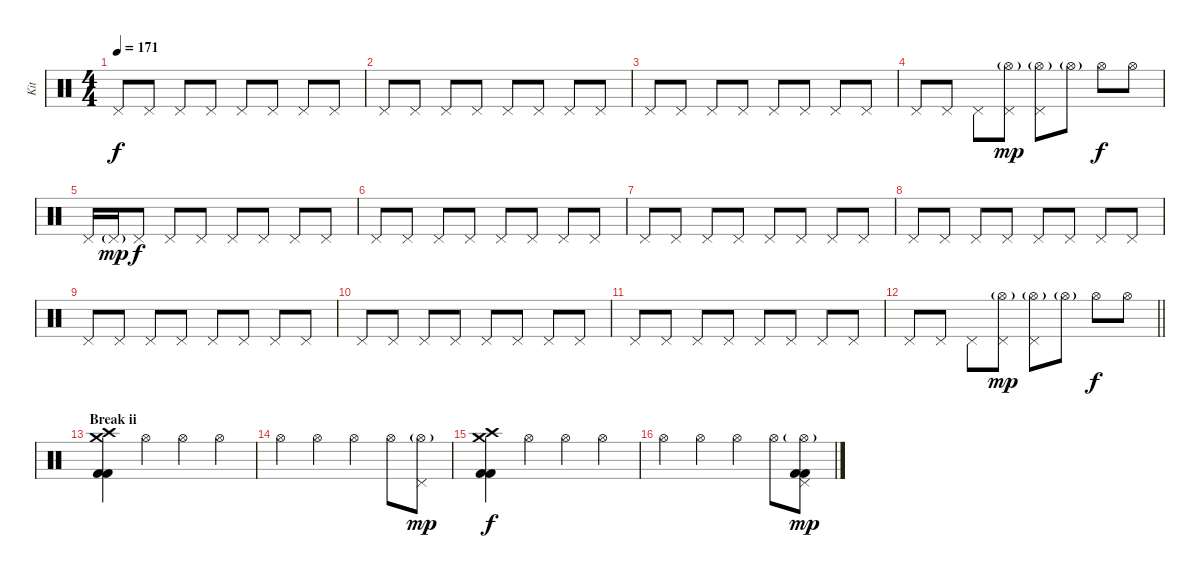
\track ("Kit" "Kit") {instrument percussion}
\staff {score}
\articulation defaults
\ts (4 4)
\tempo 171
\clef neutral
\ks c "Pedal Hi-Hat (hit)".8{dy f} "Pedal Hi-Hat (hit)".8 "Pedal Hi-Hat (hit)".8 "Pedal Hi-Hat (hit)".8 "Pedal Hi-Hat (hit)".8 "Pedal Hi-Hat (hit)".8 "Pedal Hi-Hat (hit)".8 "Pedal Hi-Hat (hit)".8
|
"Pedal Hi-Hat (hit)".8 "Pedal Hi-Hat (hit)".8 "Pedal Hi-Hat (hit)".8 "Pedal Hi-Hat (hit)".8 "Pedal Hi-Hat (hit)".8 "Pedal Hi-Hat (hit)".8 "Pedal Hi-Hat (hit)".8 "Pedal Hi-Hat (hit)".8 |
"Pedal Hi-Hat (hit)".8 "Pedal Hi-Hat (hit)".8 "Pedal Hi-Hat (hit)".8 "Pedal Hi-Hat (hit)".8 "Pedal Hi-Hat (hit)".8 "Pedal Hi-Hat (hit)".8 "Pedal Hi-Hat (hit)".8 "Pedal Hi-Hat (hit)".8 |
"Pedal Hi-Hat (hit)".8 "Pedal Hi-Hat (hit)".8 "Pedal Hi-Hat (hit)".8 ("Pedal Hi-Hat (hit)" "Hi-Hat (open)"{g}).8{dy mp} ("Pedal Hi-Hat (hit)" "Hi-Hat (open)"{g}).8 "Hi-Hat (open)"{g}.8 "Hi-Hat (open)".8{dy f} "Hi-Hat (open)".8 |
"Pedal Hi-Hat (hit)".16 "Pedal Hi-Hat (hit)"{g}.16{dy mp} "Pedal Hi-Hat (hit)".8{dy f} "Pedal Hi-Hat (hit)".8 "Pedal Hi-Hat (hit)".8 "Pedal Hi-Hat (hit)".8 "Pedal Hi-Hat (hit)".8 "Pedal Hi-Hat (hit)".8 "Pedal Hi-Hat (hit)".8 |
"Pedal Hi-Hat (hit)".8 "Pedal Hi-Hat (hit)".8 "Pedal Hi-Hat (hit)".8 "Pedal Hi-Hat (hit)".8 "Pedal Hi-Hat (hit)".8 "Pedal Hi-Hat (hit)".8 "Pedal Hi-Hat (hit)".8 "Pedal Hi-Hat (hit)".8 |
"Pedal Hi-Hat (hit)".8 "Pedal Hi-Hat (hit)".8 "Pedal Hi-Hat (hit)".8 "Pedal Hi-Hat (hit)".8 "Pedal Hi-Hat (hit)".8 "Pedal Hi-Hat (hit)".8 "Pedal Hi-Hat (hit)".8 "Pedal Hi-Hat (hit)".8 |
"Pedal Hi-Hat (hit)".8 "Pedal Hi-Hat (hit)".8 "Pedal Hi-Hat (hit)".8 "Pedal Hi-Hat (hit)".8 "Pedal Hi-Hat (hit)".8 "Pedal Hi-Hat (hit)".8 "Pedal Hi-Hat (hit)".8 "Pedal Hi-Hat (hit)".8 |
"Pedal Hi-Hat (hit)".8 "Pedal Hi-Hat (hit)".8 "Pedal Hi-Hat (hit)".8 "Pedal Hi-Hat (hit)".8 "Pedal Hi-Hat (hit)".8 "Pedal Hi-Hat (hit)".8 "Pedal Hi-Hat (hit)".8 "Pedal Hi-Hat (hit)".8 |
"Pedal Hi-Hat (hit)".8 "Pedal Hi-Hat (hit)".8 "Pedal Hi-Hat (hit)".8 "Pedal Hi-Hat (hit)".8 "Pedal Hi-Hat (hit)".8 "Pedal Hi-Hat (hit)".8 "Pedal Hi-Hat (hit)".8 "Pedal Hi-Hat (hit)".8 |
"Pedal Hi-Hat (hit)".8 "Pedal Hi-Hat (hit)".8 "Pedal Hi-Hat (hit)".8 "Pedal Hi-Hat (hit)".8 "Pedal Hi-Hat (hit)".8 "Pedal Hi-Hat (hit)".8 "Pedal Hi-Hat (hit)".8 "Pedal Hi-Hat (hit)".8 |
\barLineRight lightlight "Pedal Hi-Hat (hit)".8 "Pedal Hi-Hat (hit)".8 "Pedal Hi-Hat (hit)".8
("Pedal Hi-Hat (hit)" "Hi-Hat (open)"{g}).8{dy mp} ("Pedal Hi-Hat (hit)" "Hi-Hat (open)"{g}).8 "Hi-Hat (open)"{g}.8 "Hi-Hat (open)".8{dy f} "Hi-Hat (open)".8 |
\section ("" "Break ii")
("Crash medium (hit)" "Crash high (hit)" "Kick (hit) 2" "Kick (hit) 2").4 "Hi-Hat (open)".4 "Hi-Hat (open)".4 "Hi-Hat (open)".4 |
"Hi-Hat (open)".4 "Hi-Hat (open)".4 "Hi-Hat (open)".4 "Hi-Hat (open)".8 ("Hi-Hat (open)"{g} "Pedal Hi-Hat (hit)").8{dy mp} |
("Crash medium (hit)" "Crash high (hit)" "Kick (hit) 2" "Kick (hit) 2").4{dy f} "Hi-Hat (open)".4 "Hi-Hat (open)".4 "Hi-Hat (open)".4 |
"Hi-Hat (open)".4 "Hi-Hat (open)".4 "Hi-Hat (open)".4 "Hi-Hat (open)".8 ("Hi-Hat (open)"{g} "Pedal Hi-Hat (hit)" "Kick (hit) 2" "Kick (hit) 2").8{dy mp}
